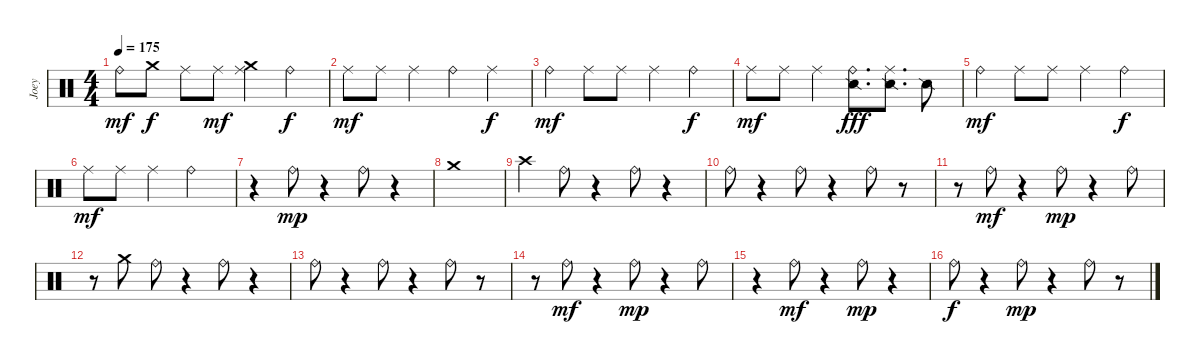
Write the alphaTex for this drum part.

\track ("Joey" "Joey") {instrument percussion}
\staff {score}
\articulation defaults
\ts (4 4)
\tempo 175
\clef neutral
\ks c "Ride (bell)".8{dy mf} "Crash medium (hit)".8{dy f} "Ride (middle)".8 "Ride (middle)".8{dy mf}
("Ride (middle)" "Crash medium (hit)").4 "Ride (bell)".4{dy f} |
"Ride (middle)".8{dy mf} "Ride (middle)".8 "Ride (middle)".4 "Ride (bell)".4 "Ride (middle)".4{dy f} |
"Ride (bell)".4{dy mf} "Ride (middle)".8 "Ride (middle)".8 "Ride (middle)".4 "Ride (bell)".4{dy f} |
"Ride (middle)".8{dy mf} "Ride (middle)".8 "Ride (middle)".4 ("Ride (bell)" "Snare (side stick) 2").8{d dy fff} ("Ride (middle)" "Snare (side stick) 2").8{d} "Snare (side stick) 2".8 |
"Ride (bell)".4{dy mf} "Ride (middle)".8 "Ride (middle)".8 "Ride (middle)".4 "Ride (bell)".4{dy f} |
"Ride (middle)".8{dy mf} "Ride (middle)".8 "Ride (middle)".4 "Ride (bell)".2 |
r.4 "Ride (bell)".8{dy mp} r.4 "Ride (bell)".8 r.4 |
"Crash medium (hit)".1 |
"Crash high (hit)".4 "Ride (bell)".8 r.4 "Ride (bell)".8 r.4 |
"Ride (bell)".8 r.4 "Ride (bell)".8 r.4 "Ride (bell)".8 r.8 |
r.8 "Ride (bell)".8{dy mf} r.4 "Ride (bell)".8{dy mp} r.4 "Ride (bell)".8 |
r.8 "Crash medium (hit)".8 "Ride (bell)".8 r.4 "Ride (bell)".8 r.4 |
"Ride (bell)".8 r.4 "Ride (bell)".8 r.4 "Ride (bell)".8 r.8 |
r.8 "Ride (bell)".8{dy mf} r.4 "Ride (bell)".8{dy mp} r.4 "Ride (bell)".8 |
r.4 "Ride (bell)".8{dy mf} r.4 "Ride (bell)".8{dy mp} r.4 |
"Ride (bell)".8{dy f} r.4 "Ride (bell)".8{dy mp} r.4 "Ride (bell)".8 r.8
